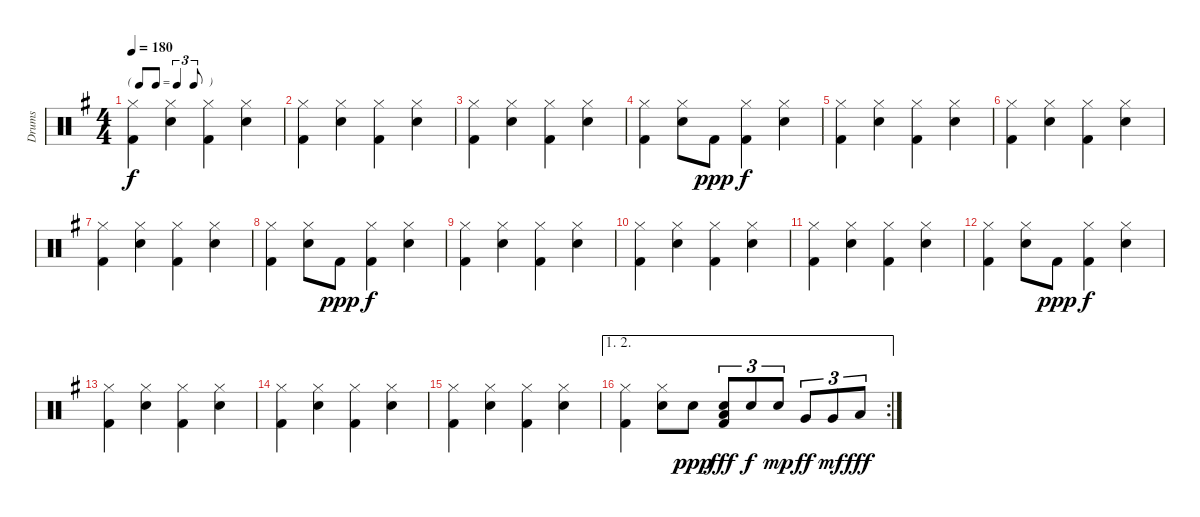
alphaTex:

\track ("Drums" "Drums") {instrument percussion}
\staff {score}
\articulation defaults
\ts (4 4)
\tf triplet8th
\tempo 180
\clef neutral
\ks g
("Hi-Hat (closed)" "Kick (hit) 2").4{dy f} ("Hi-Hat (closed)" "Snare (hit) 2").4 ("Hi-Hat (closed)" "Kick (hit) 2").4 ("Hi-Hat (closed)" "Snare (hit) 2").4 |
("Hi-Hat (closed)" "Kick (hit) 2").4 ("Hi-Hat (closed)" "Snare (hit) 2").4 ("Hi-Hat (closed)" "Kick (hit) 2").4 ("Hi-Hat (closed)" "Snare (hit) 2").4 |
("Hi-Hat (closed)" "Kick (hit) 2").4 ("Hi-Hat (closed)" "Snare (hit) 2").4 ("Hi-Hat (closed)" "Kick (hit) 2").4 ("Hi-Hat (closed)" "Snare (hit) 2").4 |
("Hi-Hat (closed)" "Kick (hit) 2").4 ("Hi-Hat (closed)" "Snare (hit) 2").8 "Kick (hit) 2".8{dy ppp} ("Hi-Hat (closed)" "Kick (hit) 2").4{dy f} ("Hi-Hat (closed)" "Snare (hit) 2").4 |
("Hi-Hat (closed)" "Kick (hit) 2").4 ("Hi-Hat (closed)" "Snare (hit) 2").4 ("Hi-Hat (closed)" "Kick (hit) 2").4 ("Hi-Hat (closed)" "Snare (hit) 2").4 |
("Hi-Hat (closed)" "Kick (hit) 2").4 ("Hi-Hat (closed)" "Snare (hit) 2").4 ("Hi-Hat (closed)" "Kick (hit) 2").4 ("Hi-Hat (closed)" "Snare (hit) 2").4 |
("Hi-Hat (closed)" "Kick (hit) 2").4 ("Hi-Hat (closed)" "Snare (hit) 2").4 ("Hi-Hat (closed)" "Kick (hit) 2").4 ("Hi-Hat (closed)" "Snare (hit) 2").4 |
("Hi-Hat (closed)" "Kick (hit) 2").4 ("Hi-Hat (closed)" "Snare (hit) 2").8 "Kick (hit) 2".8{dy ppp} ("Hi-Hat (closed)" "Kick (hit) 2").4{dy f} ("Hi-Hat (closed)" "Snare (hit) 2").4 |
("Hi-Hat (closed)" "Kick (hit) 2").4 ("Hi-Hat (closed)" "Snare (hit) 2").4 ("Hi-Hat (closed)" "Kick (hit) 2").4 ("Hi-Hat (closed)" "Snare (hit) 2").4 |
("Hi-Hat (closed)" "Kick (hit) 2").4 ("Hi-Hat (closed)" "Snare (hit) 2").4 ("Hi-Hat (closed)" "Kick (hit) 2").4 ("Hi-Hat (closed)" "Snare (hit) 2").4 |
("Hi-Hat (closed)" "Kick (hit) 2").4 ("Hi-Hat (closed)" "Snare (hit) 2").4 ("Hi-Hat (closed)" "Kick (hit) 2").4 ("Hi-Hat (closed)" "Snare (hit) 2").4 |
("Hi-Hat (closed)" "Kick (hit) 2").4 ("Hi-Hat (closed)" "Snare (hit) 2").8 "Kick (hit) 2".8{dy ppp} ("Hi-Hat (closed)" "Kick (hit) 2").4{dy f} ("Hi-Hat (closed)" "Snare (hit) 2").4 |
("Hi-Hat (closed)" "Kick (hit) 2").4 ("Hi-Hat (closed)" "Snare (hit) 2").4 ("Hi-Hat (closed)" "Kick (hit) 2").4 ("Hi-Hat (closed)" "Snare (hit) 2").4 |
("Hi-Hat (closed)" "Kick (hit) 2").4 ("Hi-Hat (closed)" "Snare (hit) 2").4 ("Hi-Hat (closed)" "Kick (hit) 2").4 ("Hi-Hat (closed)" "Snare (hit) 2").4 |
("Hi-Hat (closed)" "Kick (hit) 2").4 ("Hi-Hat (closed)" "Snare (hit) 2").4 ("Hi-Hat (closed)" "Kick (hit) 2").4 ("Hi-Hat (closed)" "Snare (hit) 2").4 |
\ae (1 2)
\rc 2
("Hi-Hat (closed)" "Kick (hit) 2").4 ("Hi-Hat (closed)" "Snare (hit) 2").8 "Snare (hit) 2".8{dy ppp} ("Low Floor Tom (hit)" "Kick (hit) 2" "Snare (hit) 2").8{tu (3 2) dy fff} "Snare (hit) 2".8{tu (3 2) dy f} "Snare (hit) 2".8{tu (3 2) dy mp} "Very Low Tom (hit)".8{tu (3 2) dy ff} "Very Low Tom (hit)".8{tu (3 2) dy mf} "Low Floor Tom (hit)".8{tu (3 2) dy fff}
